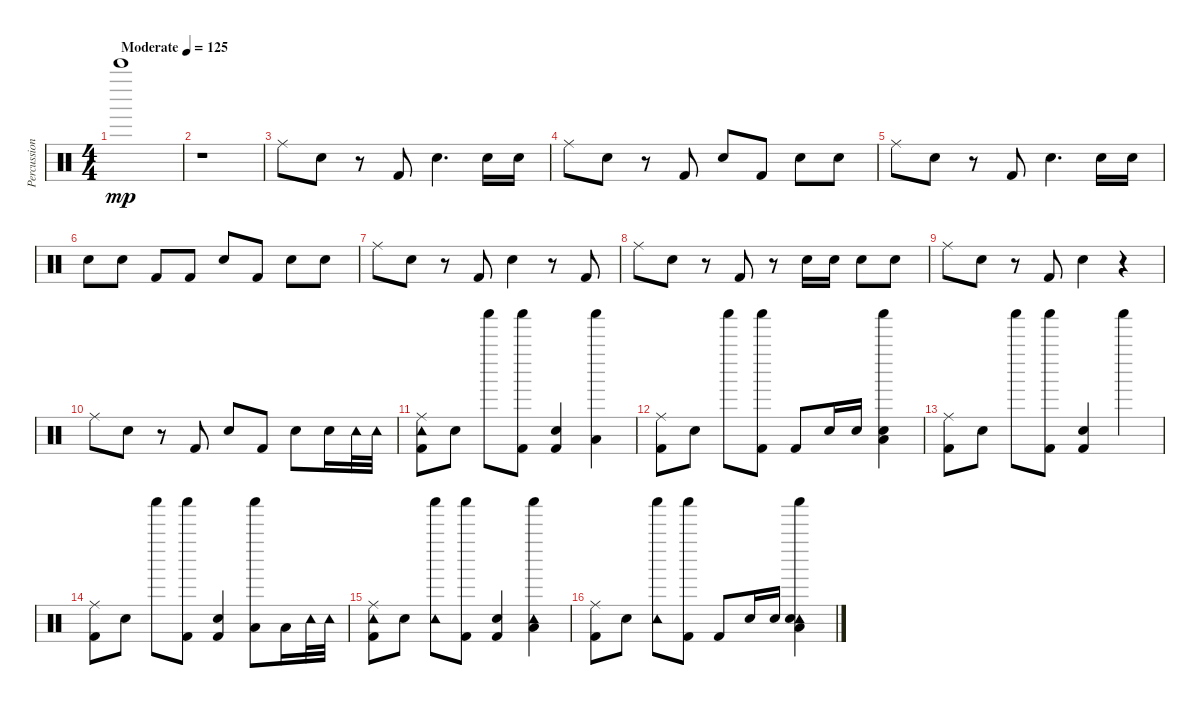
\track ("Percussion" "Percussion") {instrument percussion}
\staff {score}
\articulation defaults
\ts (4 4)
\tempo (125 "Moderate")
\clef neutral
\ks c "Bell Tree (hit)".1{dy mp}
|
r.1 |
"Ride (middle)".8 "Snare (hit) 2".8 r.8 "Kick (hit) 2".8 "Snare (hit) 2".4{d} "Snare (hit) 2".16 "Snare (hit) 2".16 |
"Ride (middle)".8 "Snare (hit) 2".8 r.8 "Kick (hit) 2".8 "Snare (hit) 2".8 "Kick (hit) 2".8 "Snare (hit) 2".8 "Snare (hit) 2".8 |
"Ride (middle)".8 "Snare (hit) 2".8 r.8 "Kick (hit) 2".8 "Snare (hit) 2".4{d} "Snare (hit) 2".16 "Snare (hit) 2".16 |
"Snare (hit) 2".8 "Snare (hit) 2".8 "Kick (hit) 2".8 "Kick (hit) 2".8 "Snare (hit) 2".8 "Kick (hit) 2".8 "Snare (hit) 2".8 "Snare (hit) 2".8 |
"Ride (middle)".8 "Snare (hit) 2".8 r.8 "Kick (hit) 2".8 "Snare (hit) 2".4 r.8 "Kick (hit) 2".8 |
"Ride (middle)".8 "Snare (hit) 2".8 r.8 "Kick (hit) 2".8 r.8 "Snare (hit) 2".16 "Snare (hit) 2".16 "Snare (hit) 2".8 "Snare (hit) 2".8 |
"Ride (middle)".8 "Snare (hit) 2".8 r.8 "Kick (hit) 2".8 "Snare (hit) 2".4 r.4 |
"Ride (middle)".8 "Snare (hit) 2".8 r.8 "Kick (hit) 2".8 "Snare (hit) 2".8 "Kick (hit) 2".8 "Snare (hit) 2".8 "Snare (hit) 2".16 "Tambourine (hit)".32 "Tambourine (hit)".32 |
("Tambourine (hit)" "Ride (middle)" "Kick (hit) 2").8 "Snare (hit) 2".8 "Shaker (hit)".8 ("Shaker (hit)" "Kick (hit) 2").8 ("Kick (hit) 2" "Snare (hit) 2").4 ("Shaker (hit)" "Low Tom (hit)").4 |
("Ride (middle)" "Kick (hit) 2").8 "Snare (hit) 2".8 "Shaker (hit)".8 ("Shaker (hit)" "Kick (hit) 2").8 "Kick (hit) 2".8 "Snare (hit) 2".16 "Snare (hit) 2".16 ("Low Tom (hit)" "Shaker (hit)" "Snare (hit) 2").4 |
("Ride (middle)" "Kick (hit) 2").8 "Snare (hit) 2".8 "Shaker (hit)".8 ("Shaker (hit)" "Kick (hit) 2").8 ("Kick (hit) 2" "Snare (hit) 2").4 "Shaker (hit)".4 |
("Ride (middle)" "Kick (hit) 2").8 "Snare (hit) 2".8 "Shaker (hit)".8 ("Shaker (hit)" "Kick (hit) 2").8 ("Kick (hit) 2" "Snare (hit) 2").4 ("Shaker (hit)" "Low Tom (hit)").8 "Low Tom (hit)".16 "Tambourine (hit)".32 "Tambourine (hit)".32 |
("Tambourine (hit)" "Ride (middle)" "Kick (hit) 2").8 "Snare (hit) 2".8 ("Shaker (hit)" "Tambourine (hit)").8 ("Shaker (hit)" "Kick (hit) 2").8 ("Kick (hit) 2" "Snare (hit) 2").4 ("Tambourine (hit)" "Shaker (hit)" "Low Tom (hit)").4 |
("Ride (middle)" "Kick (hit) 2").8 "Snare (hit) 2".8 ("Shaker (hit)" "Tambourine (hit)").8 ("Shaker (hit)" "Kick (hit) 2").8 "Kick (hit) 2".8 "Snare (hit) 2".16 "Snare (hit) 2".16 ("Low Tom (hit)" "Tambourine (hit)" "Shaker (hit)" "Snare (hit) 2").4
